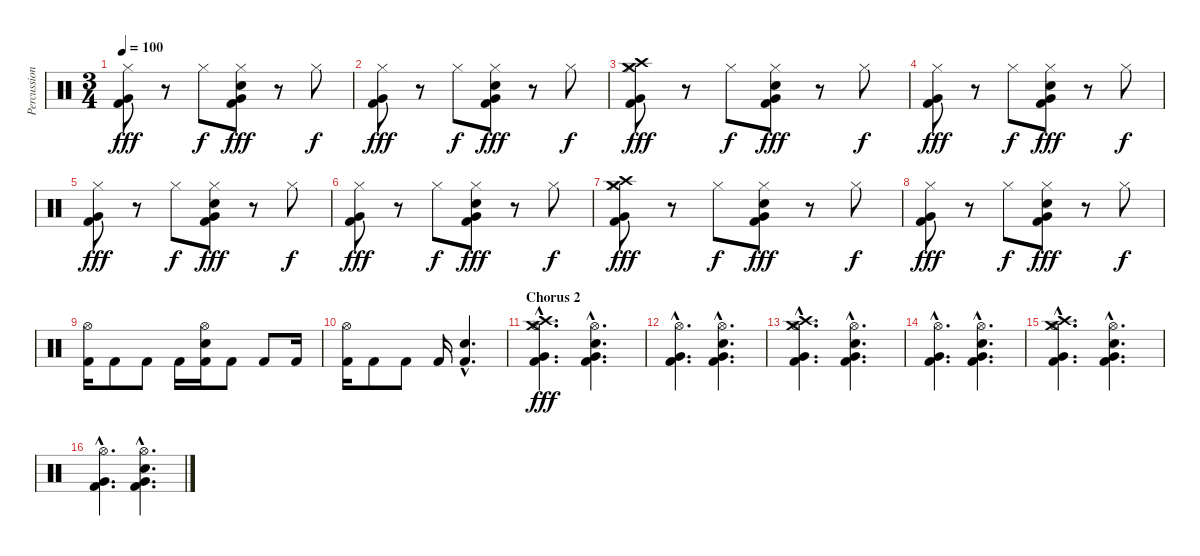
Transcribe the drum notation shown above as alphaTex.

\track ("Percussion" "Percussion") {instrument percussion}
\staff {score}
\articulation defaults
\ts (3 4)
\tempo 100
\clef neutral
\ks c
("Very Low Tom (hit)" "Kick (hit) 2" "Hi-Hat (closed)").8{dy fff} r.8 "Hi-Hat (closed)".8{dy f} ("Snare (hit) 2" "Kick (hit) 2" "Very Low Tom (hit)" "Hi-Hat (closed)").8{dy fff} r.8 "Hi-Hat (closed)".8{dy f} |
("Very Low Tom (hit)" "Kick (hit) 2" "Hi-Hat (closed)").8{dy fff} r.8 "Hi-Hat (closed)".8{dy f} ("Snare (hit) 2" "Kick (hit) 2" "Very Low Tom (hit)" "Hi-Hat (closed)").8{dy fff} r.8 "Hi-Hat (closed)".8{dy f} |
("Very Low Tom (hit)" "Kick (hit) 2" "Crash medium (hit)" "Crash high (hit)" "Hi-Hat (closed)").8{dy fff} r.8 "Hi-Hat (closed)".8{dy f} ("Snare (hit) 2" "Kick (hit) 2" "Very Low Tom (hit)" "Hi-Hat (closed)").8{dy fff} r.8 "Hi-Hat (closed)".8{dy f} |
("Very Low Tom (hit)" "Kick (hit) 2" "Hi-Hat (closed)").8{dy fff} r.8 "Hi-Hat (closed)".8{dy f} ("Snare (hit) 2" "Kick (hit) 2" "Very Low Tom (hit)" "Hi-Hat (closed)").8{dy fff} r.8 "Hi-Hat (closed)".8{dy f} |
("Very Low Tom (hit)" "Kick (hit) 2" "Hi-Hat (closed)").8{dy fff} r.8 "Hi-Hat (closed)".8{dy f} ("Snare (hit) 2" "Kick (hit) 2" "Very Low Tom (hit)" "Hi-Hat (closed)").8{dy fff} r.8 "Hi-Hat (closed)".8{dy f} |
("Very Low Tom (hit)" "Kick (hit) 2" "Hi-Hat (closed)").8{dy fff} r.8 "Hi-Hat (closed)".8{dy f} ("Snare (hit) 2" "Kick (hit) 2" "Very Low Tom (hit)" "Hi-Hat (closed)").8{dy fff} r.8 "Hi-Hat (closed)".8{dy f} |
("Very Low Tom (hit)" "Kick (hit) 2" "Crash medium (hit)" "Crash high (hit)" "Hi-Hat (closed)").8{dy fff} r.8 "Hi-Hat (closed)".8{dy f} ("Snare (hit) 2" "Kick (hit) 2" "Very Low Tom (hit)" "Hi-Hat (closed)").8{dy fff} r.8 "Hi-Hat (closed)".8{dy f} |
("Very Low Tom (hit)" "Kick (hit) 2" "Hi-Hat (closed)").8{dy fff} r.8 "Hi-Hat (closed)".8{dy f} ("Snare (hit) 2" "Kick (hit) 2" "Very Low Tom (hit)" "Hi-Hat (closed)").8{dy fff} r.8 "Hi-Hat (closed)".8{dy f} |
("Kick (hit) 2" "Hi-Hat (open)").16 "Kick (hit) 2".8 "Kick (hit) 2".8 "Kick (hit) 2".16 ("Snare (hit) 2" "Kick (hit) 2" "Hi-Hat (open)").16 "Kick (hit) 2".8 "Kick (hit) 2".8 "Kick (hit) 2".16 |
("Kick (hit) 2" "Hi-Hat (open)").16 "Kick (hit) 2".8 "Kick (hit) 2".8 "Kick (hit) 2".16 ("Snare (hit) 2"{hac} "Kick (hit) 2"{hac}).4{d} |
\section ("" "Chorus 2")
("Kick (hit) 2"{hac} "Very Low Tom (hit)"{hac} "Crash medium (hit)"{hac} "Crash high (hit)"{hac} "Hi-Hat (open)"{hac}).4{d dy fff} ("Snare (hit) 2"{hac} "Kick (hit) 2"{hac} "Very Low Tom (hit)"{hac} "Hi-Hat (open)"{hac}).4{d} |
("Kick (hit) 2"{hac} "Very Low Tom (hit)"{hac} "Hi-Hat (open)"{hac}).4{d} ("Snare (hit) 2"{hac} "Kick (hit) 2"{hac} "Very Low Tom (hit)"{hac} "Hi-Hat (open)"{hac}).4{d} |
("Kick (hit) 2"{hac} "Very Low Tom (hit)"{hac} "Crash medium (hit)"{hac} "Crash high (hit)"{hac} "Hi-Hat (open)"{hac}).4{d} ("Snare (hit) 2"{hac} "Kick (hit) 2"{hac} "Very Low Tom (hit)"{hac} "Hi-Hat (open)"{hac}).4{d} |
("Kick (hit) 2"{hac} "Very Low Tom (hit)"{hac} "Hi-Hat (open)"{hac}).4{d} ("Snare (hit) 2"{hac} "Kick (hit) 2"{hac} "Very Low Tom (hit)"{hac} "Hi-Hat (open)"{hac}).4{d} |
("Kick (hit) 2"{hac} "Very Low Tom (hit)"{hac} "Crash medium (hit)"{hac} "Crash high (hit)"{hac} "Hi-Hat (open)"{hac}).4{d} ("Snare (hit) 2"{hac} "Kick (hit) 2"{hac} "Very Low Tom (hit)"{hac} "Hi-Hat (open)"{hac}).4{d} |
("Kick (hit) 2"{hac} "Very Low Tom (hit)"{hac} "Hi-Hat (open)"{hac}).4{d} ("Snare (hit) 2"{hac} "Kick (hit) 2"{hac} "Very Low Tom (hit)"{hac} "Hi-Hat (open)"{hac}).4{d}
